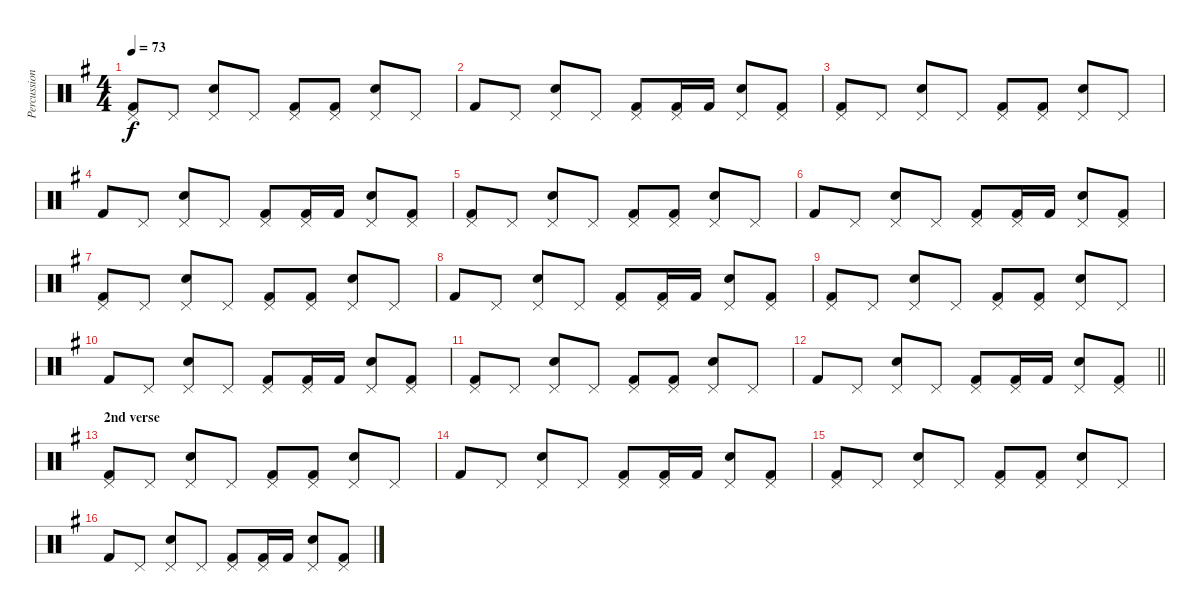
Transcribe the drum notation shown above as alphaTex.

\track ("Percussions" "Percussion") {instrument percussion}
\staff {score}
\articulation defaults
\ts (4 4)
\tempo 73
\clef neutral
\ks g
("Pedal Hi-Hat (hit)" "Kick (hit) 2").8{dy f} "Pedal Hi-Hat (hit)".8 ("Pedal Hi-Hat (hit)" "Snare (hit) 2").8 "Pedal Hi-Hat (hit)".8 ("Pedal Hi-Hat (hit)" "Kick (hit) 2").8 ("Pedal Hi-Hat (hit)" "Kick (hit) 2").8 ("Pedal Hi-Hat (hit)" "Snare (hit) 2").8 "Pedal Hi-Hat (hit)".8 |
"Kick (hit) 2".8 "Pedal Hi-Hat (hit)".8 ("Pedal Hi-Hat (hit)" "Snare (hit) 2").8 "Pedal Hi-Hat (hit)".8 ("Pedal Hi-Hat (hit)" "Kick (hit) 2").8 ("Pedal Hi-Hat (hit)" "Kick (hit) 2").16 "Kick (hit) 2".16 ("Pedal Hi-Hat (hit)" "Snare (hit) 2").8 ("Pedal Hi-Hat (hit)" "Kick (hit) 2").8 |
("Pedal Hi-Hat (hit)" "Kick (hit) 2").8 "Pedal Hi-Hat (hit)".8 ("Pedal Hi-Hat (hit)" "Snare (hit) 2").8 "Pedal Hi-Hat (hit)".8 ("Pedal Hi-Hat (hit)" "Kick (hit) 2").8 ("Pedal Hi-Hat (hit)" "Kick (hit) 2").8 ("Pedal Hi-Hat (hit)" "Snare (hit) 2").8 "Pedal Hi-Hat (hit)".8 |
"Kick (hit) 2".8 "Pedal Hi-Hat (hit)".8 ("Pedal Hi-Hat (hit)" "Snare (hit) 2").8 "Pedal Hi-Hat (hit)".8 ("Pedal Hi-Hat (hit)" "Kick (hit) 2").8 ("Pedal Hi-Hat (hit)" "Kick (hit) 2").16 "Kick (hit) 2".16 ("Pedal Hi-Hat (hit)" "Snare (hit) 2").8 ("Pedal Hi-Hat (hit)" "Kick (hit) 2").8 |
("Pedal Hi-Hat (hit)" "Kick (hit) 2").8 "Pedal Hi-Hat (hit)".8 ("Pedal Hi-Hat (hit)" "Snare (hit) 2").8 "Pedal Hi-Hat (hit)".8 ("Pedal Hi-Hat (hit)" "Kick (hit) 2").8 ("Pedal Hi-Hat (hit)" "Kick (hit) 2").8 ("Pedal Hi-Hat (hit)" "Snare (hit) 2").8 "Pedal Hi-Hat (hit)".8 |
"Kick (hit) 2".8 "Pedal Hi-Hat (hit)".8 ("Pedal Hi-Hat (hit)" "Snare (hit) 2").8 "Pedal Hi-Hat (hit)".8 ("Pedal Hi-Hat (hit)" "Kick (hit) 2").8 ("Pedal Hi-Hat (hit)" "Kick (hit) 2").16 "Kick (hit) 2".16 ("Pedal Hi-Hat (hit)" "Snare (hit) 2").8 ("Pedal Hi-Hat (hit)" "Kick (hit) 2").8 |
("Pedal Hi-Hat (hit)" "Kick (hit) 2").8 "Pedal Hi-Hat (hit)".8 ("Pedal Hi-Hat (hit)" "Snare (hit) 2").8 "Pedal Hi-Hat (hit)".8 ("Pedal Hi-Hat (hit)" "Kick (hit) 2").8 ("Pedal Hi-Hat (hit)" "Kick (hit) 2").8 ("Pedal Hi-Hat (hit)" "Snare (hit) 2").8 "Pedal Hi-Hat (hit)".8 |
"Kick (hit) 2".8 "Pedal Hi-Hat (hit)".8 ("Pedal Hi-Hat (hit)" "Snare (hit) 2").8 "Pedal Hi-Hat (hit)".8 ("Pedal Hi-Hat (hit)" "Kick (hit) 2").8 ("Pedal Hi-Hat (hit)" "Kick (hit) 2").16 "Kick (hit) 2".16 ("Pedal Hi-Hat (hit)" "Snare (hit) 2").8 ("Pedal Hi-Hat (hit)" "Kick (hit) 2").8 |
("Pedal Hi-Hat (hit)" "Kick (hit) 2").8 "Pedal Hi-Hat (hit)".8 ("Pedal Hi-Hat (hit)" "Snare (hit) 2").8 "Pedal Hi-Hat (hit)".8 ("Pedal Hi-Hat (hit)" "Kick (hit) 2").8 ("Pedal Hi-Hat (hit)" "Kick (hit) 2").8 ("Pedal Hi-Hat (hit)" "Snare (hit) 2").8 "Pedal Hi-Hat (hit)".8 |
"Kick (hit) 2".8 "Pedal Hi-Hat (hit)".8 ("Pedal Hi-Hat (hit)" "Snare (hit) 2").8 "Pedal Hi-Hat (hit)".8 ("Pedal Hi-Hat (hit)" "Kick (hit) 2").8 ("Pedal Hi-Hat (hit)" "Kick (hit) 2").16 "Kick (hit) 2".16 ("Pedal Hi-Hat (hit)" "Snare (hit) 2").8 ("Pedal Hi-Hat (hit)" "Kick (hit) 2").8 |
("Pedal Hi-Hat (hit)" "Kick (hit) 2").8 "Pedal Hi-Hat (hit)".8 ("Pedal Hi-Hat (hit)" "Snare (hit) 2").8 "Pedal Hi-Hat (hit)".8 ("Pedal Hi-Hat (hit)" "Kick (hit) 2").8 ("Pedal Hi-Hat (hit)" "Kick (hit) 2").8 ("Pedal Hi-Hat (hit)" "Snare (hit) 2").8 "Pedal Hi-Hat (hit)".8 |
\barLineRight lightlight "Kick (hit) 2".8 "Pedal Hi-Hat (hit)".8
("Pedal Hi-Hat (hit)" "Snare (hit) 2").8 "Pedal Hi-Hat (hit)".8 ("Pedal Hi-Hat (hit)" "Kick (hit) 2").8 ("Pedal Hi-Hat (hit)" "Kick (hit) 2").16 "Kick (hit) 2".16 ("Pedal Hi-Hat (hit)" "Snare (hit) 2").8 ("Pedal Hi-Hat (hit)" "Kick (hit) 2").8 |
\section ("" "2nd verse")
("Pedal Hi-Hat (hit)" "Kick (hit) 2").8 "Pedal Hi-Hat (hit)".8 ("Pedal Hi-Hat (hit)" "Snare (hit) 2").8 "Pedal Hi-Hat (hit)".8 ("Pedal Hi-Hat (hit)" "Kick (hit) 2").8 ("Pedal Hi-Hat (hit)" "Kick (hit) 2").8 ("Pedal Hi-Hat (hit)" "Snare (hit) 2").8 "Pedal Hi-Hat (hit)".8 |
"Kick (hit) 2".8 "Pedal Hi-Hat (hit)".8 ("Pedal Hi-Hat (hit)" "Snare (hit) 2").8 "Pedal Hi-Hat (hit)".8 ("Pedal Hi-Hat (hit)" "Kick (hit) 2").8 ("Pedal Hi-Hat (hit)" "Kick (hit) 2").16 "Kick (hit) 2".16 ("Pedal Hi-Hat (hit)" "Snare (hit) 2").8 ("Pedal Hi-Hat (hit)" "Kick (hit) 2").8 |
("Pedal Hi-Hat (hit)" "Kick (hit) 2").8 "Pedal Hi-Hat (hit)".8 ("Pedal Hi-Hat (hit)" "Snare (hit) 2").8 "Pedal Hi-Hat (hit)".8 ("Pedal Hi-Hat (hit)" "Kick (hit) 2").8 ("Pedal Hi-Hat (hit)" "Kick (hit) 2").8 ("Pedal Hi-Hat (hit)" "Snare (hit) 2").8 "Pedal Hi-Hat (hit)".8 |
"Kick (hit) 2".8 "Pedal Hi-Hat (hit)".8 ("Pedal Hi-Hat (hit)" "Snare (hit) 2").8 "Pedal Hi-Hat (hit)".8 ("Pedal Hi-Hat (hit)" "Kick (hit) 2").8 ("Pedal Hi-Hat (hit)" "Kick (hit) 2").16 "Kick (hit) 2".16 ("Pedal Hi-Hat (hit)" "Snare (hit) 2").8 ("Pedal Hi-Hat (hit)" "Kick (hit) 2").8
